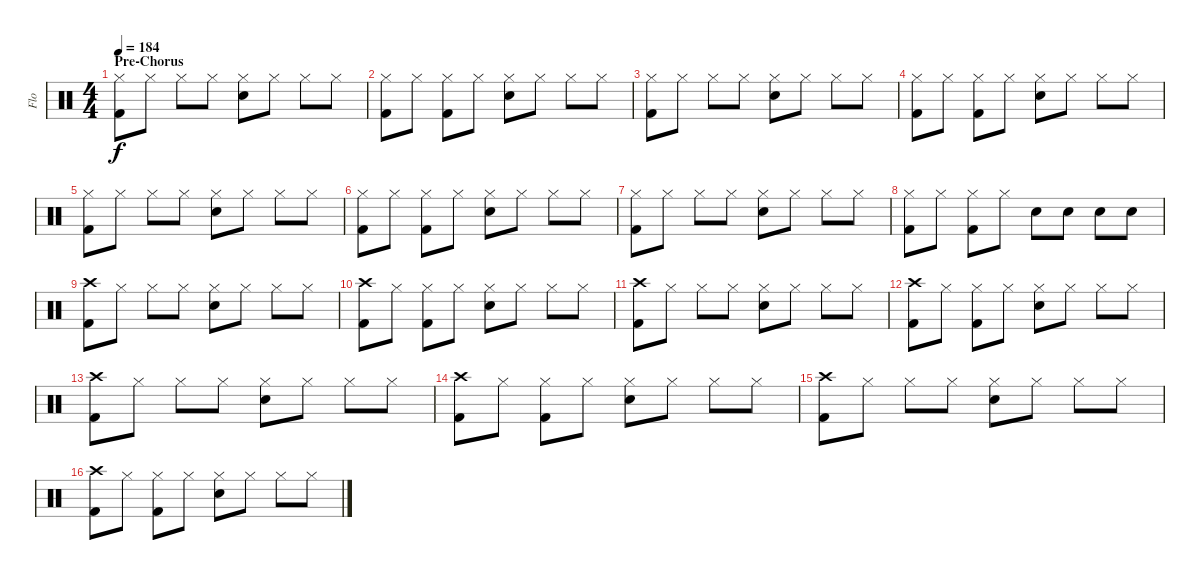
\track ("Flo" "Flo") {instrument percussion}
\staff {score}
\articulation defaults
\ts (4 4)
\section ("" "Pre-Chorus")
\tempo 184
\clef neutral
\ks c
("Hi-Hat (closed)" "Kick (hit) 2").8{dy f} "Hi-Hat (closed)".8 "Hi-Hat (closed)".8 "Hi-Hat (closed)".8 ("Hi-Hat (closed)" "Electric Snare (hit)").8 "Hi-Hat (closed)".8 "Hi-Hat (closed)".8 "Hi-Hat (closed)".8 |
("Hi-Hat (closed)" "Kick (hit) 2").8 "Hi-Hat (closed)".8 ("Hi-Hat (closed)" "Kick (hit) 2").8 "Hi-Hat (closed)".8 ("Hi-Hat (closed)" "Electric Snare (hit)").8 "Hi-Hat (closed)".8 "Hi-Hat (closed)".8 "Hi-Hat (closed)".8 |
("Hi-Hat (closed)" "Kick (hit) 2").8 "Hi-Hat (closed)".8 "Hi-Hat (closed)".8 "Hi-Hat (closed)".8 ("Hi-Hat (closed)" "Electric Snare (hit)").8 "Hi-Hat (closed)".8 "Hi-Hat (closed)".8 "Hi-Hat (closed)".8 |
("Hi-Hat (closed)" "Kick (hit) 2").8 "Hi-Hat (closed)".8 ("Hi-Hat (closed)" "Kick (hit) 2").8 "Hi-Hat (closed)".8 ("Hi-Hat (closed)" "Electric Snare (hit)").8 "Hi-Hat (closed)".8 "Hi-Hat (closed)".8 "Hi-Hat (closed)".8 |
("Hi-Hat (closed)" "Kick (hit) 2").8 "Hi-Hat (closed)".8 "Hi-Hat (closed)".8 "Hi-Hat (closed)".8 ("Hi-Hat (closed)" "Electric Snare (hit)").8 "Hi-Hat (closed)".8 "Hi-Hat (closed)".8 "Hi-Hat (closed)".8 |
("Hi-Hat (closed)" "Kick (hit) 2").8 "Hi-Hat (closed)".8 ("Hi-Hat (closed)" "Kick (hit) 2").8 "Hi-Hat (closed)".8 ("Hi-Hat (closed)" "Electric Snare (hit)").8 "Hi-Hat (closed)".8 "Hi-Hat (closed)".8 "Hi-Hat (closed)".8 |
("Hi-Hat (closed)" "Kick (hit) 2").8 "Hi-Hat (closed)".8 "Hi-Hat (closed)".8 "Hi-Hat (closed)".8 ("Hi-Hat (closed)" "Electric Snare (hit)").8 "Hi-Hat (closed)".8 "Hi-Hat (closed)".8 "Hi-Hat (closed)".8 |
("Hi-Hat (closed)" "Kick (hit) 2").8 "Hi-Hat (closed)".8 ("Hi-Hat (closed)" "Kick (hit) 2").8 "Hi-Hat (closed)".8 "Electric Snare (hit)".8 "Electric Snare (hit)".8 "Electric Snare (hit)".8 "Electric Snare (hit)".8 |
("Crash high (hit)" "Kick (hit) 2").8 "Hi-Hat (closed)".8 "Hi-Hat (closed)".8 "Hi-Hat (closed)".8 ("Hi-Hat (closed)" "Electric Snare (hit)").8 "Hi-Hat (closed)".8 "Hi-Hat (closed)".8 "Hi-Hat (closed)".8 |
("Crash high (hit)" "Kick (hit) 2").8 "Hi-Hat (closed)".8 ("Hi-Hat (closed)" "Kick (hit) 2").8 "Hi-Hat (closed)".8 ("Hi-Hat (closed)" "Electric Snare (hit)").8 "Hi-Hat (closed)".8 "Hi-Hat (closed)".8 "Hi-Hat (closed)".8 |
("Crash high (hit)" "Kick (hit) 2").8 "Hi-Hat (closed)".8 "Hi-Hat (closed)".8 "Hi-Hat (closed)".8 ("Hi-Hat (closed)" "Electric Snare (hit)").8 "Hi-Hat (closed)".8 "Hi-Hat (closed)".8 "Hi-Hat (closed)".8 |
("Crash high (hit)" "Kick (hit) 2").8 "Hi-Hat (closed)".8 ("Hi-Hat (closed)" "Kick (hit) 2").8 "Hi-Hat (closed)".8 ("Hi-Hat (closed)" "Electric Snare (hit)").8 "Hi-Hat (closed)".8 "Hi-Hat (closed)".8 "Hi-Hat (closed)".8 |
("Crash high (hit)" "Kick (hit) 2").8 "Hi-Hat (closed)".8 "Hi-Hat (closed)".8 "Hi-Hat (closed)".8 ("Hi-Hat (closed)" "Electric Snare (hit)").8 "Hi-Hat (closed)".8 "Hi-Hat (closed)".8 "Hi-Hat (closed)".8 |
("Crash high (hit)" "Kick (hit) 2").8 "Hi-Hat (closed)".8 ("Hi-Hat (closed)" "Kick (hit) 2").8 "Hi-Hat (closed)".8 ("Hi-Hat (closed)" "Electric Snare (hit)").8 "Hi-Hat (closed)".8 "Hi-Hat (closed)".8 "Hi-Hat (closed)".8 |
("Crash high (hit)" "Kick (hit) 2").8 "Hi-Hat (closed)".8 "Hi-Hat (closed)".8 "Hi-Hat (closed)".8 ("Hi-Hat (closed)" "Electric Snare (hit)").8 "Hi-Hat (closed)".8 "Hi-Hat (closed)".8 "Hi-Hat (closed)".8 |
("Crash high (hit)" "Kick (hit) 2").8 "Hi-Hat (closed)".8 ("Hi-Hat (closed)" "Kick (hit) 2").8 "Hi-Hat (closed)".8 ("Hi-Hat (closed)" "Electric Snare (hit)").8 "Hi-Hat (closed)".8 "Hi-Hat (closed)".8 "Hi-Hat (closed)".8
